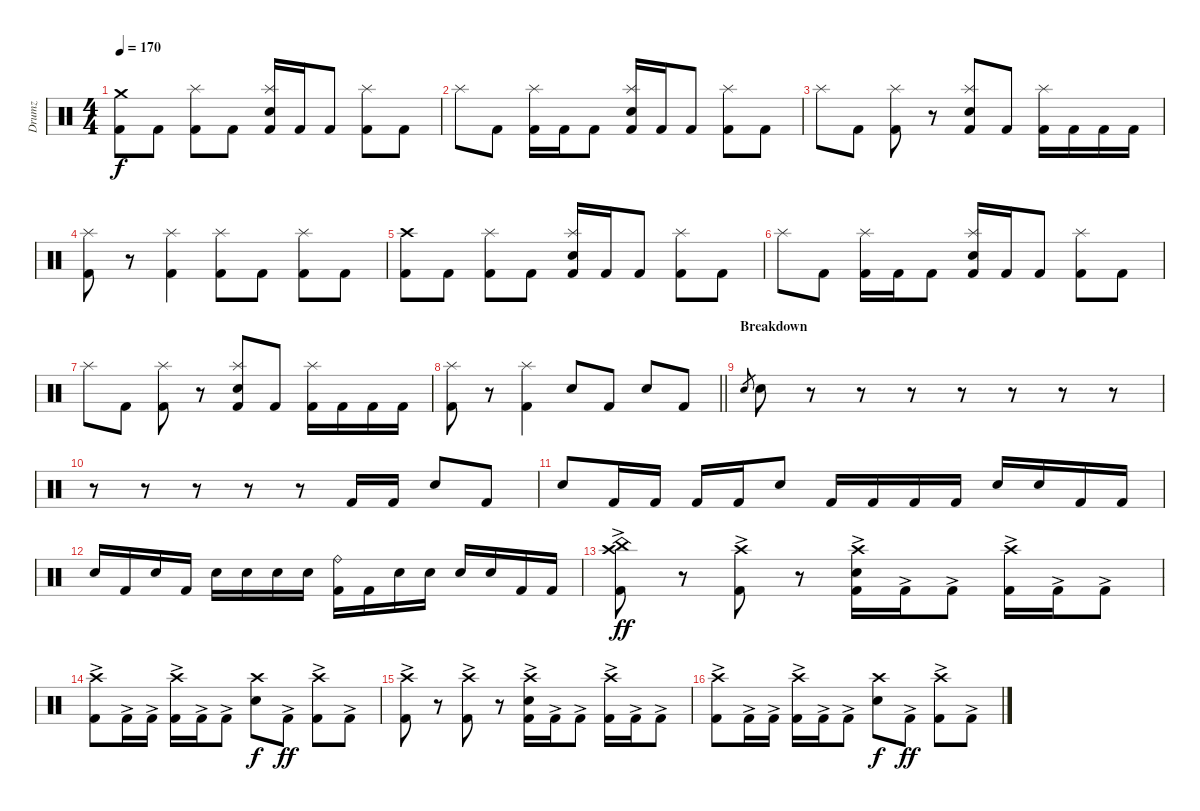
\track ("Drumz" "Drumz") {instrument percussion}
\staff {score}
\articulation defaults
\ts (4 4)
\tempo 170
\clef neutral
\ks c
("Kick (hit) 2" "Crash medium (hit)").8{dy f} "Kick (hit) 2".8 ("Kick (hit) 2" "Splash (hit)").8 "Kick (hit) 2".8 ("Kick (hit) 2" "Splash (hit)" "Electric Snare (hit)").16 "Kick (hit) 2".16 "Kick (hit) 2".8 ("Kick (hit) 2" "Splash (hit)").8 "Kick (hit) 2".8 |
"Splash (hit)".8 "Kick (hit) 2".8 ("Kick (hit) 2" "Splash (hit)").16 "Kick (hit) 2".16 "Kick (hit) 2".8 ("Kick (hit) 2" "Electric Snare (hit)" "Splash (hit)").16 "Kick (hit) 2".16 "Kick (hit) 2".8 ("Kick (hit) 2" "Splash (hit)").8 "Kick (hit) 2".8 |
"Splash (hit)".8 "Kick (hit) 2".8 ("Splash (hit)" "Kick (hit) 2").8 r.8 ("Electric Snare (hit)" "Splash (hit)" "Kick (hit) 2").8 "Kick (hit) 2".8 ("Kick (hit) 2" "Splash (hit)").16 "Kick (hit) 2".16 "Kick (hit) 2".16 "Kick (hit) 2".16 |
("Kick (hit) 2" "Splash (hit)").8 r.8 ("Splash (hit)" "Kick (hit) 2").4 ("Splash (hit)" "Kick (hit) 2").8 "Kick (hit) 2".8 ("Splash (hit)" "Kick (hit) 2").8 "Kick (hit) 2".8 |
("Kick (hit) 2" "Crash high (hit)").8 "Kick (hit) 2".8 ("Kick (hit) 2" "Splash (hit)").8 "Kick (hit) 2".8 ("Kick (hit) 2" "Splash (hit)" "Electric Snare (hit)").16 "Kick (hit) 2".16 "Kick (hit) 2".8 ("Kick (hit) 2" "Splash (hit)").8 "Kick (hit) 2".8 |
"Splash (hit)".8 "Kick (hit) 2".8 ("Kick (hit) 2" "Splash (hit)").16 "Kick (hit) 2".16 "Kick (hit) 2".8 ("Kick (hit) 2" "Electric Snare (hit)" "Splash (hit)").16 "Kick (hit) 2".16 "Kick (hit) 2".8 ("Kick (hit) 2" "Splash (hit)").8 "Kick (hit) 2".8 |
"Splash (hit)".8 "Kick (hit) 2".8 ("Splash (hit)" "Kick (hit) 2").8 r.8 ("Electric Snare (hit)" "Splash (hit)" "Kick (hit) 2").8 "Kick (hit) 2".8 ("Kick (hit) 2" "Splash (hit)").16 "Kick (hit) 2".16 "Kick (hit) 2".16 "Kick (hit) 2".16 |
\barLineRight lightlight
("Kick (hit) 2" "Splash (hit)").8 r.8 ("Splash (hit)" "Kick (hit) 2").4 "Electric Snare (hit)".8 "Kick (hit) 2".8 "Electric Snare (hit)".8 "Kick (hit) 2".8 |
\section ("" "Breakdown")
"Electric Snare (hit)".8{gr} "Electric Snare (hit)".8 r.8 r.8 r.8 r.8 r.8 r.8 r.8 |
r.8 r.8 r.8 r.8 r.8 "Kick (hit) 2".16 "Kick (hit) 2".16 "Electric Snare (hit)".8 "Kick (hit) 2".8 |
"Electric Snare (hit)".8 "Kick (hit) 2".16 "Kick (hit) 2".16 "Kick (hit) 2".16 "Kick (hit) 2".16 "Electric Snare (hit)".8 "Kick (hit) 2".16 "Kick (hit) 2".16 "Kick (hit) 2".16 "Kick (hit) 2".16 "Electric Snare (hit)".16 "Electric Snare (hit)".16 "Kick (hit) 2".16 "Kick (hit) 2".16 |
"Electric Snare (hit)".16 "Kick (hit) 2".16 "Electric Snare (hit)".16 "Kick (hit) 2".16 "Electric Snare (hit)".16 "Electric Snare (hit)".16 "Electric Snare (hit)".16 "Electric Snare (hit)".16 ("Kick (hit) 2" "Ride (bell)").16 "Kick (hit) 2".16 "Electric Snare (hit)".16 "Electric Snare (hit)".16 "Electric Snare (hit)".16 "Electric Snare (hit)".16 "Kick (hit) 2".16 "Kick (hit) 2".16 |
("China (hit)" "Crash high (hit)" "Kick (hit) 2"{ac}).8{dy ff} r.8 ("Crash high (hit)" "Kick (hit) 2"{ac}).8 r.8 ("Kick (hit) 2"{ac} "Crash high (hit)" "Electric Snare (hit)").16 "Kick (hit) 2"{ac}.16 "Kick (hit) 2"{ac}.8 ("Kick (hit) 2"{ac} "Crash high (hit)").16 "Kick (hit) 2"{ac}.16 "Kick (hit) 2"{ac}.8 |
("Kick (hit) 2"{ac} "Crash high (hit)").8 "Kick (hit) 2"{ac}.16 "Kick (hit) 2"{ac}.16 ("Kick (hit) 2"{ac} "Crash high (hit)").16 "Kick (hit) 2"{ac}.16 "Kick (hit) 2"{ac}.8 ("Crash high (hit)" "Electric Snare (hit)").8{dy f} "Kick (hit) 2"{ac}.8{dy ff} ("Kick (hit) 2"{ac} "Crash high (hit)").8 "Kick (hit) 2"{ac}.8 |
("Crash high (hit)" "Kick (hit) 2"{ac}).8 r.8 ("Crash high (hit)" "Kick (hit) 2"{ac}).8 r.8 ("Kick (hit) 2"{ac} "Crash high (hit)" "Electric Snare (hit)").16 "Kick (hit) 2"{ac}.16 "Kick (hit) 2"{ac}.8 ("Kick (hit) 2"{ac} "Crash high (hit)").16 "Kick (hit) 2"{ac}.16 "Kick (hit) 2"{ac}.8 |
("Kick (hit) 2"{ac} "Crash high (hit)").8 "Kick (hit) 2"{ac}.16 "Kick (hit) 2"{ac}.16 ("Kick (hit) 2"{ac} "Crash high (hit)").16 "Kick (hit) 2"{ac}.16 "Kick (hit) 2"{ac}.8 ("Crash high (hit)" "Electric Snare (hit)").8{dy f} "Kick (hit) 2"{ac}.8{dy ff} ("Kick (hit) 2"{ac} "Crash high (hit)").8 "Kick (hit) 2"{ac}.8
